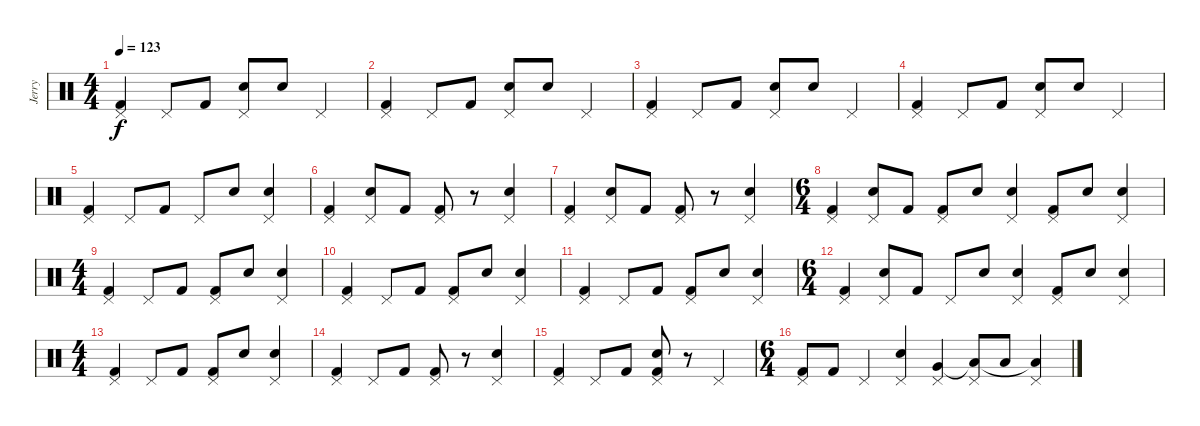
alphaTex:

\track ("Jerry" "Jerry") {instrument percussion}
\staff {score}
\articulation defaults
\ts (4 4)
\tempo 123
\clef neutral
\ks c
("Pedal Hi-Hat (hit)" "Kick (hit) 2").4{dy f} "Pedal Hi-Hat (hit)".8 "Kick (hit) 2".8 ("Pedal Hi-Hat (hit)" "Snare (hit) 2").8 "Snare (hit) 2".8 "Pedal Hi-Hat (hit)".4 |
("Pedal Hi-Hat (hit)" "Kick (hit) 2").4 "Pedal Hi-Hat (hit)".8 "Kick (hit) 2".8 ("Pedal Hi-Hat (hit)" "Snare (hit) 2").8 "Snare (hit) 2".8 "Pedal Hi-Hat (hit)".4 |
("Pedal Hi-Hat (hit)" "Kick (hit) 2").4 "Pedal Hi-Hat (hit)".8 "Kick (hit) 2".8 ("Pedal Hi-Hat (hit)" "Snare (hit) 2").8 "Snare (hit) 2".8 "Pedal Hi-Hat (hit)".4 |
("Pedal Hi-Hat (hit)" "Kick (hit) 2").4 "Pedal Hi-Hat (hit)".8 "Kick (hit) 2".8 ("Pedal Hi-Hat (hit)" "Snare (hit) 2").8 "Snare (hit) 2".8 "Pedal Hi-Hat (hit)".4 |
("Pedal Hi-Hat (hit)" "Kick (hit) 2").4 "Pedal Hi-Hat (hit)".8 "Kick (hit) 2".8 "Pedal Hi-Hat (hit)".8 "Snare (hit) 2".8 ("Pedal Hi-Hat (hit)" "Snare (hit) 2").4 |
("Pedal Hi-Hat (hit)" "Kick (hit) 2").4 ("Pedal Hi-Hat (hit)" "Snare (hit) 2").8 "Kick (hit) 2".8 ("Pedal Hi-Hat (hit)" "Kick (hit) 2").8 r.8 ("Pedal Hi-Hat (hit)" "Snare (hit) 2").4 |
("Pedal Hi-Hat (hit)" "Kick (hit) 2").4 ("Pedal Hi-Hat (hit)" "Snare (hit) 2").8 "Kick (hit) 2".8 ("Pedal Hi-Hat (hit)" "Kick (hit) 2").8 r.8 ("Pedal Hi-Hat (hit)" "Snare (hit) 2").4 |
\ts (6 4)
("Pedal Hi-Hat (hit)" "Kick (hit) 2").4 ("Pedal Hi-Hat (hit)" "Snare (hit) 2").8 "Kick (hit) 2".8 ("Pedal Hi-Hat (hit)" "Kick (hit) 2").8 "Snare (hit) 2".8 ("Pedal Hi-Hat (hit)" "Snare (hit) 2").4 ("Pedal Hi-Hat (hit)" "Kick (hit) 2").8 "Snare (hit) 2".8 ("Pedal Hi-Hat (hit)" "Snare (hit) 2").4 |
\ts (4 4)
("Pedal Hi-Hat (hit)" "Kick (hit) 2").4 "Pedal Hi-Hat (hit)".8 "Kick (hit) 2".8 ("Pedal Hi-Hat (hit)" "Kick (hit) 2").8 "Snare (hit) 2".8 ("Pedal Hi-Hat (hit)" "Snare (hit) 2").4 |
("Pedal Hi-Hat (hit)" "Kick (hit) 2").4 "Pedal Hi-Hat (hit)".8 "Kick (hit) 2".8 ("Pedal Hi-Hat (hit)" "Kick (hit) 2").8 "Snare (hit) 2".8 ("Pedal Hi-Hat (hit)" "Snare (hit) 2").4 |
("Pedal Hi-Hat (hit)" "Kick (hit) 2").4 "Pedal Hi-Hat (hit)".8 "Kick (hit) 2".8 ("Pedal Hi-Hat (hit)" "Kick (hit) 2").8 "Snare (hit) 2".8 ("Pedal Hi-Hat (hit)" "Snare (hit) 2").4 |
\ts (6 4)
("Pedal Hi-Hat (hit)" "Kick (hit) 2").4 ("Pedal Hi-Hat (hit)" "Snare (hit) 2").8 "Kick (hit) 2".8 "Pedal Hi-Hat (hit)".8 "Snare (hit) 2".8 ("Pedal Hi-Hat (hit)" "Snare (hit) 2").4 ("Pedal Hi-Hat (hit)" "Kick (hit) 2").8 "Snare (hit) 2".8 ("Pedal Hi-Hat (hit)" "Snare (hit) 2").4 |
\ts (4 4)
("Pedal Hi-Hat (hit)" "Kick (hit) 2").4 "Pedal Hi-Hat (hit)".8 "Kick (hit) 2".8 ("Pedal Hi-Hat (hit)" "Kick (hit) 2").8 "Snare (hit) 2".8 ("Pedal Hi-Hat (hit)" "Snare (hit) 2").4 |
("Pedal Hi-Hat (hit)" "Kick (hit) 2").4 "Pedal Hi-Hat (hit)".8 "Kick (hit) 2".8 ("Pedal Hi-Hat (hit)" "Kick (hit) 2").8 r.8 ("Pedal Hi-Hat (hit)" "Snare (hit) 2").4 |
("Pedal Hi-Hat (hit)" "Kick (hit) 2").4 "Pedal Hi-Hat (hit)".8 "Kick (hit) 2".8 ("Pedal Hi-Hat (hit)" "Snare (hit) 2" "Kick (hit) 2").8 r.8 "Pedal Hi-Hat (hit)".4 |
\ts (6 4)
("Pedal Hi-Hat (hit)" "Kick (hit) 2").8 "Kick (hit) 2".8 "Pedal Hi-Hat (hit)".4 ("Pedal Hi-Hat (hit)" "Snare (hit) 2").4 ("Pedal Hi-Hat (hit)" "Very Low Tom (hit)").4 ("Pedal Hi-Hat (hit)" "Low Tom (hit)"{t}).8 "Low Tom (hit)".8 ("Pedal Hi-Hat (hit)" "Low Floor Tom (hit)"{t}).4
